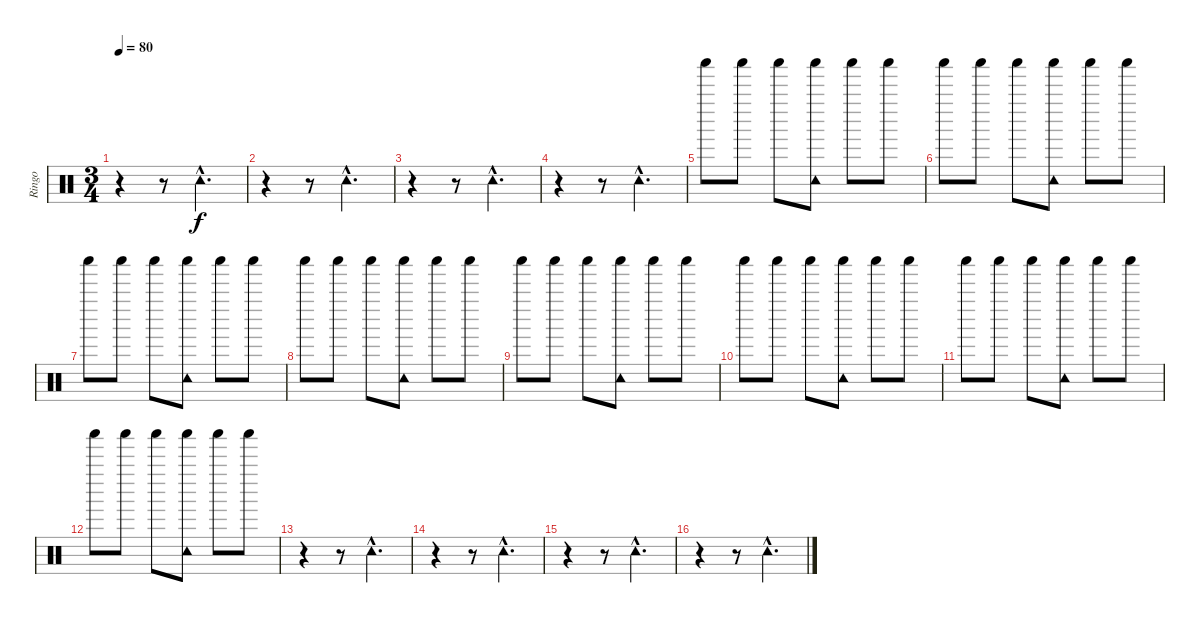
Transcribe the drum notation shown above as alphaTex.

\track ("Ringo" "Ringo") {instrument percussion}
\staff {score}
\articulation defaults
\ts (3 4)
\tempo 80
\clef neutral
\ks c
r.4{dy f} r.8 "Tambourine (hit)"{hac}.4{d} |
r.4 r.8 "Tambourine (hit)"{hac}.4{d} |
r.4 r.8 "Tambourine (hit)"{hac}.4{d} |
r.4 r.8 "Tambourine (hit)"{hac}.4{d} |
"Shaker (hit)".8 "Shaker (hit)".8 "Shaker (hit)".8 ("Tambourine (hit)" "Shaker (hit)").8 "Shaker (hit)".8 "Shaker (hit)".8 |
"Shaker (hit)".8 "Shaker (hit)".8 "Shaker (hit)".8 ("Tambourine (hit)" "Shaker (hit)").8 "Shaker (hit)".8 "Shaker (hit)".8 |
"Shaker (hit)".8 "Shaker (hit)".8 "Shaker (hit)".8 ("Tambourine (hit)" "Shaker (hit)").8 "Shaker (hit)".8 "Shaker (hit)".8 |
"Shaker (hit)".8 "Shaker (hit)".8 "Shaker (hit)".8 ("Tambourine (hit)" "Shaker (hit)").8 "Shaker (hit)".8 "Shaker (hit)".8 |
"Shaker (hit)".8 "Shaker (hit)".8 "Shaker (hit)".8 ("Tambourine (hit)" "Shaker (hit)").8 "Shaker (hit)".8 "Shaker (hit)".8 |
"Shaker (hit)".8 "Shaker (hit)".8 "Shaker (hit)".8 ("Tambourine (hit)" "Shaker (hit)").8 "Shaker (hit)".8 "Shaker (hit)".8 |
"Shaker (hit)".8 "Shaker (hit)".8 "Shaker (hit)".8 ("Tambourine (hit)" "Shaker (hit)").8 "Shaker (hit)".8 "Shaker (hit)".8 |
"Shaker (hit)".8 "Shaker (hit)".8 "Shaker (hit)".8 ("Tambourine (hit)" "Shaker (hit)").8 "Shaker (hit)".8 "Shaker (hit)".8 |
r.4 r.8 "Tambourine (hit)"{hac}.4{d} |
r.4 r.8 "Tambourine (hit)"{hac}.4{d} |
r.4 r.8 "Tambourine (hit)"{hac}.4{d} |
r.4 r.8 "Tambourine (hit)"{hac}.4{d}
